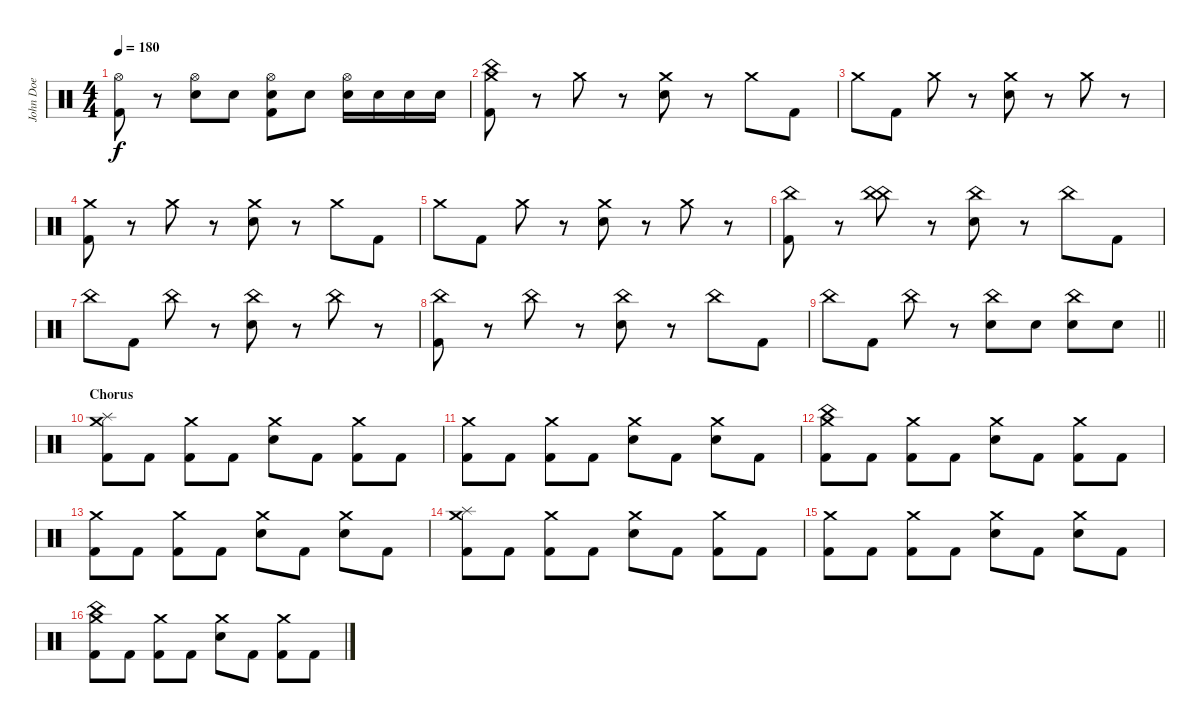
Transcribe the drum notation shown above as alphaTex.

\track ("John Doe" "John Doe") {instrument percussion}
\staff {score}
\articulation defaults
\ts (4 4)
\tempo 180
\clef neutral
\ks c
("Hi-Hat (open)" "Kick (hit) 2").8{dy f} r.8 ("Hi-Hat (open)" "Electric Snare (hit)").8 "Electric Snare (hit)".8 ("Hi-Hat (open)" "Electric Snare (hit)" "Kick (hit) 2").8 "Electric Snare (hit)".8 ("Hi-Hat (open)" "Electric Snare (hit)").16 "Electric Snare (hit)".16 "Electric Snare (hit)".16 "Electric Snare (hit)".16 |
("China (hit)" "Crash medium (hit)" "Kick (hit) 2").8 r.8 "Crash medium (hit)".8 r.8 ("Crash medium (hit)" "Electric Snare (hit)").8 r.8 "Crash medium (hit)".8 "Kick (hit) 2".8 |
"Crash medium (hit)".8 "Kick (hit) 2".8 "Crash medium (hit)".8 r.8 ("Crash medium (hit)" "Electric Snare (hit)").8 r.8 "Crash medium (hit)".8 r.8 |
("Crash medium (hit)" "Kick (hit) 2").8 r.8 "Crash medium (hit)".8 r.8 ("Crash medium (hit)" "Electric Snare (hit)").8 r.8 "Crash medium (hit)".8 "Kick (hit) 2".8 |
"Crash medium (hit)".8 "Kick (hit) 2".8 "Crash medium (hit)".8 r.8 ("Crash medium (hit)" "Electric Snare (hit)").8 r.8 "Crash medium (hit)".8 r.8 |
("China (hit)" "Kick (hit) 2").8 r.8 ("China (hit)" "China (hit)").8 r.8 ("China (hit)" "Electric Snare (hit)").8 r.8 "China (hit)".8 "Kick (hit) 2".8 |
"China (hit)".8 "Kick (hit) 2".8 "China (hit)".8 r.8 ("China (hit)" "Electric Snare (hit)").8 r.8 "China (hit)".8 r.8 |
("China (hit)" "Kick (hit) 2").8 r.8 "China (hit)".8 r.8 ("China (hit)" "Electric Snare (hit)").8 r.8 "China (hit)".8 "Kick (hit) 2".8 |
\barLineRight lightlight "China (hit)".8 "Kick (hit) 2".8 "China (hit)".8
r.8 ("China (hit)" "Electric Snare (hit)").8 "Electric Snare (hit)".8 ("China (hit)" "Electric Snare (hit)").8 "Electric Snare (hit)".8 |
\section ("" "Chorus")
("Splash (hit)" "Crash medium (hit)" "Kick (hit) 2").8 "Kick (hit) 2".8 ("Crash medium (hit)" "Kick (hit) 2").8 "Kick (hit) 2".8 ("Crash medium (hit)" "Electric Snare (hit)").8 "Kick (hit) 2".8 ("Crash medium (hit)" "Kick (hit) 2").8 "Kick (hit) 2".8 |
("Crash medium (hit)" "Kick (hit) 2").8 "Kick (hit) 2".8 ("Crash medium (hit)" "Kick (hit) 2").8 "Kick (hit) 2".8 ("Crash medium (hit)" "Electric Snare (hit)").8 "Kick (hit) 2".8 ("Crash medium (hit)" "Electric Snare (hit)").8 "Kick (hit) 2".8 |
("China (hit)" "Crash medium (hit)" "Kick (hit) 2").8 "Kick (hit) 2".8 ("Crash medium (hit)" "Kick (hit) 2").8 "Kick (hit) 2".8 ("Crash medium (hit)" "Electric Snare (hit)").8 "Kick (hit) 2".8 ("Crash medium (hit)" "Kick (hit) 2").8 "Kick (hit) 2".8 |
("Crash medium (hit)" "Kick (hit) 2").8 "Kick (hit) 2".8 ("Crash medium (hit)" "Kick (hit) 2").8 "Kick (hit) 2".8 ("Crash medium (hit)" "Electric Snare (hit)").8 "Kick (hit) 2".8 ("Crash medium (hit)" "Electric Snare (hit)").8 "Kick (hit) 2".8 |
("Splash (hit)" "Crash medium (hit)" "Kick (hit) 2").8 "Kick (hit) 2".8 ("Crash medium (hit)" "Kick (hit) 2").8 "Kick (hit) 2".8 ("Crash medium (hit)" "Electric Snare (hit)").8 "Kick (hit) 2".8 ("Crash medium (hit)" "Kick (hit) 2").8 "Kick (hit) 2".8 |
("Crash medium (hit)" "Kick (hit) 2").8 "Kick (hit) 2".8 ("Crash medium (hit)" "Kick (hit) 2").8 "Kick (hit) 2".8 ("Crash medium (hit)" "Electric Snare (hit)").8 "Kick (hit) 2".8 ("Crash medium (hit)" "Electric Snare (hit)").8 "Kick (hit) 2".8 |
("China (hit)" "Crash medium (hit)" "Kick (hit) 2").8 "Kick (hit) 2".8 ("Crash medium (hit)" "Kick (hit) 2").8 "Kick (hit) 2".8 ("Crash medium (hit)" "Electric Snare (hit)").8 "Kick (hit) 2".8 ("Crash medium (hit)" "Kick (hit) 2").8 "Kick (hit) 2".8
